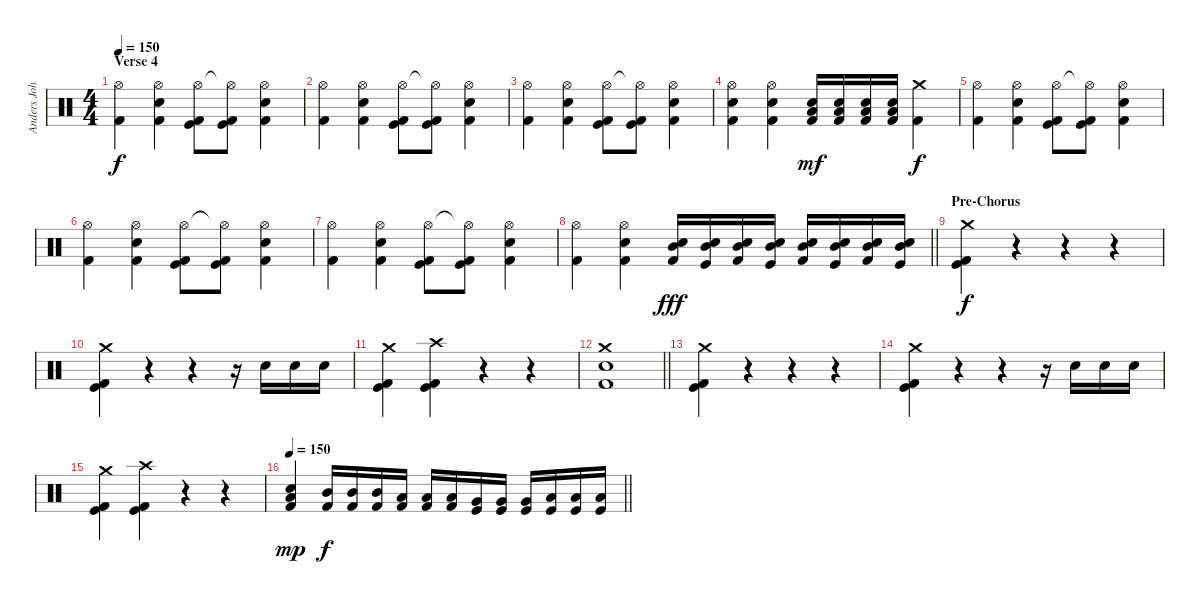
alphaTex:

\track ("Anders Johansson" "Anders Joh") {instrument percussion}
\staff {score}
\articulation defaults
\ts (4 4)
\section ("" "Verse 4")
\tempo 150
\clef neutral
\ks c
("Hi-Hat (open)" "Kick (hit) 2").4{dy f} ("Hi-Hat (open)" "Electric Snare (hit)" "Kick (hit) 2").4 ("Hi-Hat (open)" "Kick (hit)" "Kick (hit) 2").8 ("Hi-Hat (open)"{t} "Kick (hit)" "Kick (hit) 2").8 ("Hi-Hat (open)" "Electric Snare (hit)" "Kick (hit) 2").4 |
("Hi-Hat (open)" "Kick (hit) 2").4 ("Hi-Hat (open)" "Electric Snare (hit)" "Kick (hit) 2").4 ("Hi-Hat (open)" "Kick (hit)" "Kick (hit) 2").8 ("Hi-Hat (open)"{t} "Kick (hit)" "Kick (hit) 2").8 ("Hi-Hat (open)" "Electric Snare (hit)" "Kick (hit) 2").4 |
("Hi-Hat (open)" "Kick (hit) 2").4 ("Hi-Hat (open)" "Electric Snare (hit)" "Kick (hit) 2").4 ("Hi-Hat (open)" "Kick (hit)" "Kick (hit) 2").8 ("Hi-Hat (open)"{t} "Kick (hit)" "Kick (hit) 2").8 ("Hi-Hat (open)" "Electric Snare (hit)" "Kick (hit) 2").4 |
("Hi-Hat (open)" "Electric Snare (hit)" "Kick (hit) 2").4 ("Hi-Hat (open)" "Electric Snare (hit)" "Kick (hit) 2").4 ("Low Tom (hit)" "Electric Snare (hit)" "Kick (hit) 2").16{dy mf} ("Low Tom (hit)" "Electric Snare (hit)" "Kick (hit) 2").16 ("Low Tom (hit)" "Electric Snare (hit)" "Kick (hit) 2").16 ("Low Tom (hit)" "Electric Snare (hit)" "Kick (hit) 2").16 ("Crash medium (hit)" "Kick (hit) 2").4{dy f} |
("Hi-Hat (open)" "Kick (hit) 2").4 ("Hi-Hat (open)" "Electric Snare (hit)" "Kick (hit) 2").4 ("Hi-Hat (open)" "Kick (hit)" "Kick (hit) 2").8 ("Hi-Hat (open)"{t} "Kick (hit)" "Kick (hit) 2").8 ("Hi-Hat (open)" "Electric Snare (hit)" "Kick (hit) 2").4 |
("Hi-Hat (open)" "Kick (hit) 2").4 ("Hi-Hat (open)" "Electric Snare (hit)" "Kick (hit) 2").4 ("Hi-Hat (open)" "Kick (hit)" "Kick (hit) 2").8 ("Hi-Hat (open)"{t} "Kick (hit)" "Kick (hit) 2").8 ("Hi-Hat (open)" "Electric Snare (hit)" "Kick (hit) 2").4 |
("Hi-Hat (open)" "Kick (hit) 2").4 ("Hi-Hat (open)" "Electric Snare (hit)" "Kick (hit) 2").4 ("Hi-Hat (open)" "Kick (hit)" "Kick (hit) 2").8 ("Hi-Hat (open)"{t} "Kick (hit)" "Kick (hit) 2").8 ("Hi-Hat (open)" "Electric Snare (hit)" "Kick (hit) 2").4 |
\barLineRight lightlight
("Hi-Hat (open)" "Kick (hit) 2").4 ("Hi-Hat (open)" "Electric Snare (hit)" "Kick (hit) 2").4 ("Mid Tom (hit)" "Electric Snare (hit)" "Kick (hit) 2").16{dy fff} ("Mid Tom (hit)" "Electric Snare (hit)" "Kick (hit)").16 ("Mid Tom (hit)" "Electric Snare (hit)" "Kick (hit) 2").16 ("Mid Tom (hit)" "Electric Snare (hit)" "Kick (hit)").16 ("Mid Tom (hit)" "Electric Snare (hit)" "Kick (hit) 2").16 ("Mid Tom (hit)" "Electric Snare (hit)" "Kick (hit)").16 ("Mid Tom (hit)" "Electric Snare (hit)" "Kick (hit) 2").16 ("Mid Tom (hit)" "Electric Snare (hit)" "Kick (hit)").16 |
\section ("" "Pre-Chorus")
("Crash medium (hit)" "Kick (hit)" "Kick (hit) 2").4{dy f} r.4 r.4 r.4 |
("Crash medium (hit)" "Kick (hit)" "Kick (hit) 2").4 r.4 r.4 r.16 "Electric Snare (hit)".16 "Electric Snare (hit)".16 "Electric Snare (hit)".16 |
("Crash medium (hit)" "Kick (hit)" "Kick (hit) 2").4 ("Crash high (hit)" "Kick (hit)" "Kick (hit) 2").4 r.4 r.4 |
\barLineRight lightlight
("Crash medium (hit)" "Electric Snare (hit)" "Kick (hit) 2").1 |
("Crash medium (hit)" "Kick (hit)" "Kick (hit) 2").4 r.4 r.4 r.4 |
("Crash medium (hit)" "Kick (hit)" "Kick (hit) 2").4 r.4 r.4 r.16 "Electric Snare (hit)".16 "Electric Snare (hit)".16 "Electric Snare (hit)".16 |
("Crash medium (hit)" "Kick (hit)" "Kick (hit) 2").4 ("Crash high (hit)" "Kick (hit)" "Kick (hit) 2").4 r.4 r.4 |
\tempo 150
\barLineRight lightlight
("Low Tom (hit)" "Electric Snare (hit)" "Kick (hit) 2").4{dy mp} ("Mid Tom (hit)" "Kick (hit) 2").16{dy f} ("Mid Tom (hit)" "Kick (hit) 2").16 ("Mid Tom (hit)" "Kick (hit) 2").16 ("Low Tom (hit)" "Kick (hit) 2").16 ("Low Tom (hit)" "Kick (hit) 2").16 ("Low Tom (hit)" "Kick (hit) 2").16 ("Very Low Tom (hit)" "Kick (hit)").16 ("Very Low Tom (hit)" "Kick (hit)").16 ("Very Low Tom (hit)" "Kick (hit)").16 ("Low Floor Tom (hit)" "Kick (hit)").16 ("Low Floor Tom (hit)" "Kick (hit)").16 ("Low Floor Tom (hit)" "Kick (hit)").16
